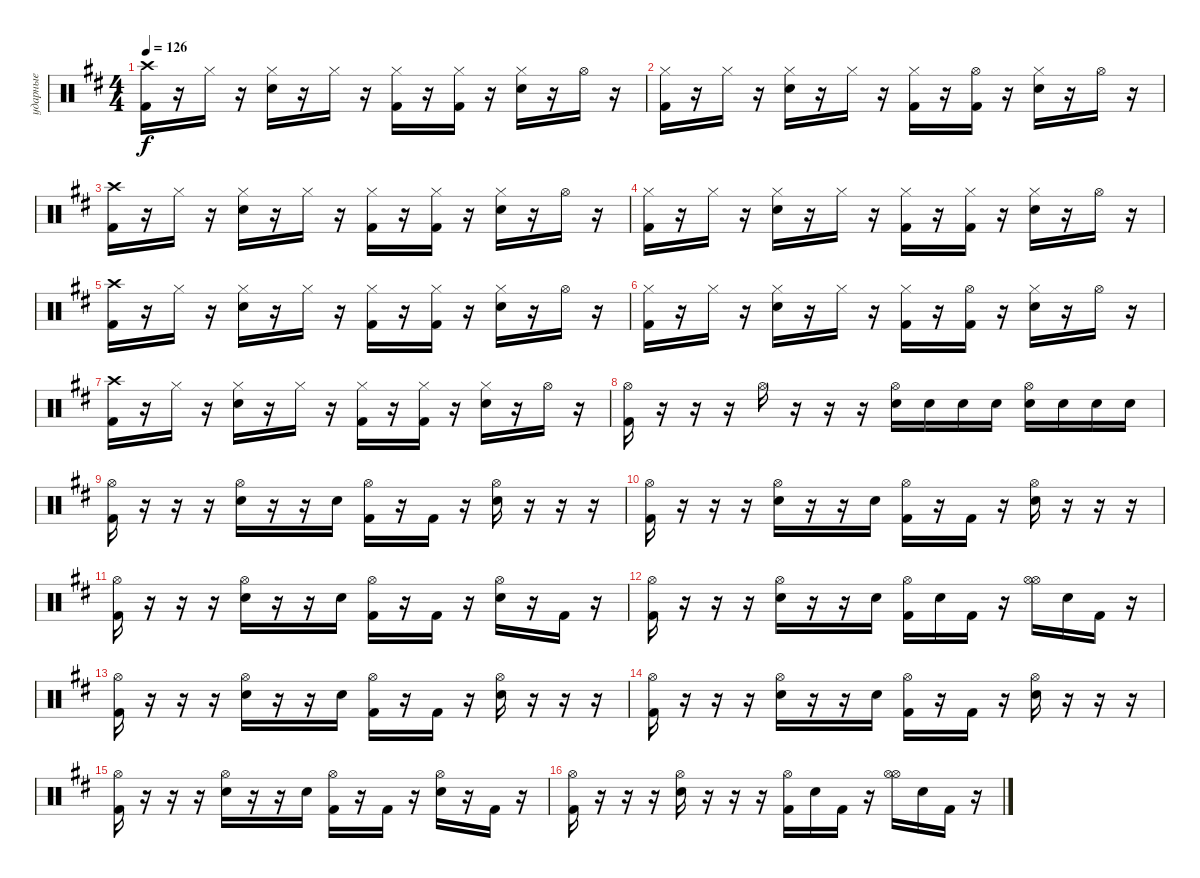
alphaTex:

\track ("ударные" "ударные") {instrument percussion}
\staff {score}
\articulation defaults
\ts (4 4)
\tempo 126
\clef neutral
\ks d
("Crash high (hit)" "Kick (hit) 2").16{dy f} r.16 "Hi-Hat (closed)".16 r.16 ("Hi-Hat (closed)" "Electric Snare (hit)").16 r.16 "Hi-Hat (closed)".16 r.16 ("Hi-Hat (closed)" "Kick (hit) 2").16 r.16 ("Hi-Hat (closed)" "Kick (hit) 2").16 r.16 ("Hi-Hat (closed)" "Electric Snare (hit)").16 r.16 "Hi-Hat (open)".16 r.16 |
("Hi-Hat (closed)" "Kick (hit) 2").16 r.16 "Hi-Hat (closed)".16 r.16 ("Hi-Hat (closed)" "Electric Snare (hit)").16 r.16 "Hi-Hat (closed)".16 r.16 ("Hi-Hat (closed)" "Kick (hit) 2").16 r.16 ("Hi-Hat (open)" "Kick (hit) 2").16 r.16 ("Hi-Hat (closed)" "Electric Snare (hit)").16 r.16 "Hi-Hat (open)".16 r.16 |
("Crash high (hit)" "Kick (hit) 2").16 r.16 "Hi-Hat (closed)".16 r.16 ("Hi-Hat (closed)" "Electric Snare (hit)").16 r.16 "Hi-Hat (closed)".16 r.16 ("Hi-Hat (closed)" "Kick (hit) 2").16 r.16 ("Hi-Hat (closed)" "Kick (hit) 2").16 r.16 ("Hi-Hat (closed)" "Electric Snare (hit)").16 r.16 "Hi-Hat (open)".16 r.16 |
("Hi-Hat (closed)" "Kick (hit) 2").16 r.16 "Hi-Hat (closed)".16 r.16 ("Hi-Hat (closed)" "Electric Snare (hit)").16 r.16 "Hi-Hat (closed)".16 r.16 ("Hi-Hat (closed)" "Kick (hit) 2").16 r.16 ("Hi-Hat (closed)" "Kick (hit) 2").16 r.16 ("Hi-Hat (closed)" "Electric Snare (hit)").16 r.16 "Hi-Hat (open)".16 r.16 |
("Crash high (hit)" "Kick (hit) 2").16 r.16 "Hi-Hat (closed)".16 r.16 ("Hi-Hat (closed)" "Electric Snare (hit)").16 r.16 "Hi-Hat (closed)".16 r.16 ("Hi-Hat (closed)" "Kick (hit) 2").16 r.16 ("Hi-Hat (closed)" "Kick (hit) 2").16 r.16 ("Hi-Hat (closed)" "Electric Snare (hit)").16 r.16 "Hi-Hat (open)".16 r.16 |
("Hi-Hat (closed)" "Kick (hit) 2").16 r.16 "Hi-Hat (closed)".16 r.16 ("Hi-Hat (closed)" "Electric Snare (hit)").16 r.16 "Hi-Hat (closed)".16 r.16 ("Hi-Hat (closed)" "Kick (hit) 2").16 r.16 ("Hi-Hat (open)" "Kick (hit) 2").16 r.16 ("Hi-Hat (closed)" "Electric Snare (hit)").16 r.16 "Hi-Hat (open)".16 r.16 |
("Crash high (hit)" "Kick (hit) 2").16 r.16 "Hi-Hat (closed)".16 r.16 ("Hi-Hat (closed)" "Electric Snare (hit)").16 r.16 "Hi-Hat (closed)".16 r.16 ("Hi-Hat (closed)" "Kick (hit) 2").16 r.16 ("Hi-Hat (closed)" "Kick (hit) 2").16 r.16 ("Hi-Hat (closed)" "Electric Snare (hit)").16 r.16 "Hi-Hat (open)".16 r.16 |
("Hi-Hat (open)" "Kick (hit) 2").16 r.16 r.16 r.16 "Hi-Hat (open)".16 r.16 r.16 r.16 ("Hi-Hat (open)" "Snare (hit) 2").16 "Snare (hit) 2".16 "Snare (hit) 2".16 "Snare (hit) 2".16 ("Hi-Hat (open)" "Snare (hit) 2").16 "Snare (hit) 2".16 "Snare (hit) 2".16 "Snare (hit) 2".16 |
("Hi-Hat (open)" "Kick (hit) 2").16 r.16 r.16 r.16 ("Hi-Hat (open)" "Electric Snare (hit)").16 r.16 r.16 "Electric Snare (hit)".16 ("Hi-Hat (open)" "Kick (hit) 2").16 r.16 "Kick (hit) 2".16 r.16 ("Hi-Hat (open)" "Electric Snare (hit)").16 r.16 r.16 r.16 |
("Hi-Hat (open)" "Kick (hit) 2").16 r.16 r.16 r.16 ("Hi-Hat (open)" "Electric Snare (hit)").16 r.16 r.16 "Electric Snare (hit)".16 ("Hi-Hat (open)" "Kick (hit) 2").16 r.16 "Kick (hit) 2".16 r.16 ("Hi-Hat (open)" "Electric Snare (hit)").16 r.16 r.16 r.16 |
("Hi-Hat (open)" "Kick (hit) 2").16 r.16 r.16 r.16 ("Hi-Hat (open)" "Electric Snare (hit)").16 r.16 r.16 "Electric Snare (hit)".16 ("Hi-Hat (open)" "Kick (hit) 2").16 r.16 "Kick (hit) 2".16 r.16 ("Hi-Hat (open)" "Electric Snare (hit)").16 r.16 "Kick (hit) 2".16 r.16 |
("Hi-Hat (open)" "Kick (hit) 2").16 r.16 r.16 r.16 ("Hi-Hat (open)" "Electric Snare (hit)").16 r.16 r.16 "Electric Snare (hit)".16 ("Hi-Hat (open)" "Kick (hit) 2").16 "Electric Snare (hit)".16 "Kick (hit) 2".16 r.16 ("Hi-Hat (open)" "Hi-Hat (open)").16 "Electric Snare (hit)".16 "Kick (hit) 2".16 r.16 |
("Hi-Hat (open)" "Kick (hit) 2").16 r.16 r.16 r.16 ("Hi-Hat (open)" "Electric Snare (hit)").16 r.16 r.16 "Electric Snare (hit)".16 ("Hi-Hat (open)" "Kick (hit) 2").16 r.16 "Kick (hit) 2".16 r.16 ("Hi-Hat (open)" "Electric Snare (hit)").16 r.16 r.16 r.16 |
("Hi-Hat (open)" "Kick (hit) 2").16 r.16 r.16 r.16 ("Hi-Hat (open)" "Electric Snare (hit)").16 r.16 r.16 "Electric Snare (hit)".16 ("Hi-Hat (open)" "Kick (hit) 2").16 r.16 "Kick (hit) 2".16 r.16 ("Hi-Hat (open)" "Electric Snare (hit)").16 r.16 r.16 r.16 |
("Hi-Hat (open)" "Kick (hit) 2").16 r.16 r.16 r.16 ("Hi-Hat (open)" "Electric Snare (hit)").16 r.16 r.16 "Electric Snare (hit)".16 ("Hi-Hat (open)" "Kick (hit) 2").16 r.16 "Kick (hit) 2".16 r.16 ("Hi-Hat (open)" "Electric Snare (hit)").16 r.16 "Kick (hit) 2".16 r.16 |
("Hi-Hat (open)" "Kick (hit) 2").16 r.16 r.16 r.16 ("Hi-Hat (open)" "Electric Snare (hit)").16 r.16 r.16 r.16 ("Hi-Hat (open)" "Kick (hit) 2").16 "Electric Snare (hit)".16 "Kick (hit) 2".16 r.16 ("Hi-Hat (open)" "Hi-Hat (open)").16 "Electric Snare (hit)".16 "Kick (hit) 2".16 r.16
